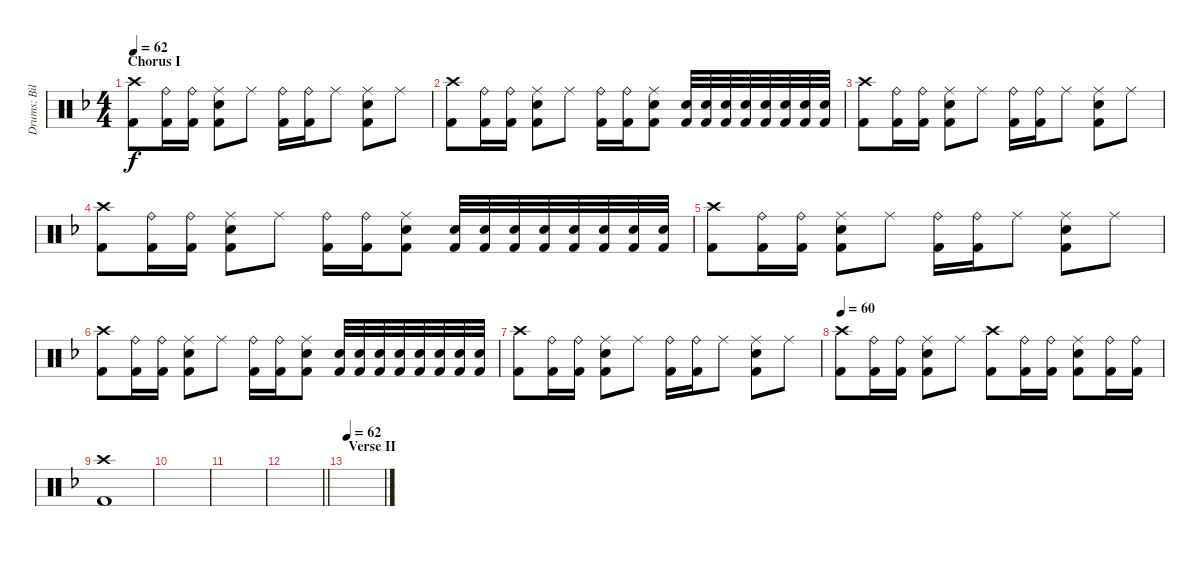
\track ("Drums: Bill" "Drums: Bil") {instrument percussion}
\staff {score}
\articulation defaults
\ts (4 4)
\section ("" "Chorus I")
\tempo 62
\clef neutral
\ks f
("Crash high (hit)" "Kick (hit) 2").8{dy f} ("Ride (bell)" "Kick (hit) 2").16 ("Ride (bell)" "Kick (hit) 2").16 ("Ride (middle)" "Snare (hit) 2" "Kick (hit) 2").8 "Ride (middle)".8 ("Ride (bell)" "Kick (hit) 2").16 ("Ride (bell)" "Kick (hit) 2").16 "Ride (middle)".8 ("Ride (middle)" "Snare (hit) 2" "Kick (hit) 2").8 "Ride (middle)".8 |
("Crash high (hit)" "Kick (hit) 2").8 ("Ride (bell)" "Kick (hit) 2").16 ("Ride (bell)" "Kick (hit) 2").16 ("Ride (middle)" "Snare (hit) 2" "Kick (hit) 2").8 "Ride (middle)".8 ("Ride (bell)" "Kick (hit) 2").16 ("Ride (bell)" "Kick (hit) 2").16 ("Ride (middle)" "Snare (hit) 2" "Kick (hit) 2").8 ("Snare (hit) 2" "Kick (hit) 2").32 ("Snare (hit) 2" "Kick (hit) 2").32 ("Snare (hit) 2" "Kick (hit) 2").32 ("Snare (hit) 2" "Kick (hit) 2").32 ("Snare (hit) 2" "Kick (hit) 2").32 ("Snare (hit) 2" "Kick (hit) 2").32 ("Snare (hit) 2" "Kick (hit) 2").32 ("Snare (hit) 2" "Kick (hit) 2").32 |
("Crash high (hit)" "Kick (hit) 2").8 ("Ride (bell)" "Kick (hit) 2").16 ("Ride (bell)" "Kick (hit) 2").16 ("Ride (middle)" "Snare (hit) 2" "Kick (hit) 2").8 "Ride (middle)".8 ("Ride (bell)" "Kick (hit) 2").16 ("Ride (bell)" "Kick (hit) 2").16 "Ride (middle)".8 ("Ride (middle)" "Snare (hit) 2" "Kick (hit) 2").8 "Ride (middle)".8 |
("Crash high (hit)" "Kick (hit) 2").8 ("Ride (bell)" "Kick (hit) 2").16 ("Ride (bell)" "Kick (hit) 2").16 ("Ride (middle)" "Snare (hit) 2" "Kick (hit) 2").8 "Ride (middle)".8 ("Ride (bell)" "Kick (hit) 2").16 ("Ride (bell)" "Kick (hit) 2").16 ("Ride (middle)" "Snare (hit) 2" "Kick (hit) 2").8 ("Snare (hit) 2" "Kick (hit) 2").32 ("Snare (hit) 2" "Kick (hit) 2").32 ("Snare (hit) 2" "Kick (hit) 2").32 ("Snare (hit) 2" "Kick (hit) 2").32 ("Snare (hit) 2" "Kick (hit) 2").32 ("Snare (hit) 2" "Kick (hit) 2").32 ("Snare (hit) 2" "Kick (hit) 2").32 ("Snare (hit) 2" "Kick (hit) 2").32 |
("Crash high (hit)" "Kick (hit) 2").8 ("Ride (bell)" "Kick (hit) 2").16 ("Ride (bell)" "Kick (hit) 2").16 ("Ride (middle)" "Snare (hit) 2" "Kick (hit) 2").8 "Ride (middle)".8 ("Ride (bell)" "Kick (hit) 2").16 ("Ride (bell)" "Kick (hit) 2").16 "Ride (middle)".8 ("Ride (middle)" "Snare (hit) 2" "Kick (hit) 2").8 "Ride (middle)".8 |
("Crash high (hit)" "Kick (hit) 2").8 ("Ride (bell)" "Kick (hit) 2").16 ("Ride (bell)" "Kick (hit) 2").16 ("Ride (middle)" "Snare (hit) 2" "Kick (hit) 2").8 "Ride (middle)".8 ("Ride (bell)" "Kick (hit) 2").16 ("Ride (bell)" "Kick (hit) 2").16 ("Ride (middle)" "Snare (hit) 2" "Kick (hit) 2").8 ("Snare (hit) 2" "Kick (hit) 2").32 ("Snare (hit) 2" "Kick (hit) 2").32 ("Snare (hit) 2" "Kick (hit) 2").32 ("Snare (hit) 2" "Kick (hit) 2").32 ("Snare (hit) 2" "Kick (hit) 2").32 ("Snare (hit) 2" "Kick (hit) 2").32 ("Snare (hit) 2" "Kick (hit) 2").32 ("Snare (hit) 2" "Kick (hit) 2").32 |
("Crash high (hit)" "Kick (hit) 2").8 ("Ride (bell)" "Kick (hit) 2").16 ("Ride (bell)" "Kick (hit) 2").16 ("Ride (middle)" "Snare (hit) 2" "Kick (hit) 2").8 "Ride (middle)".8 ("Ride (bell)" "Kick (hit) 2").16 ("Ride (bell)" "Kick (hit) 2").16 "Ride (middle)".8 ("Ride (middle)" "Snare (hit) 2" "Kick (hit) 2").8 "Ride (middle)".8 |
\tempo 60
("Crash high (hit)" "Kick (hit) 2").8 ("Ride (bell)" "Kick (hit) 2").16 ("Ride (bell)" "Kick (hit) 2").16 ("Ride (middle)" "Snare (hit) 2" "Kick (hit) 2").8 "Ride (middle)".8 ("Crash high (hit)" "Kick (hit) 2").8 ("Ride (bell)" "Kick (hit) 2").16 ("Ride (bell)" "Kick (hit) 2").16 ("Ride (middle)" "Snare (hit) 2" "Kick (hit) 2").8 ("Ride (bell)" "Kick (hit) 2").16 ("Ride (bell)" "Kick (hit) 2").16 |
("Crash high (hit)" "Kick (hit) 2").1 |
|
|
\barLineRight lightlight
|
\section ("" "Verse II")
\tempo 62
